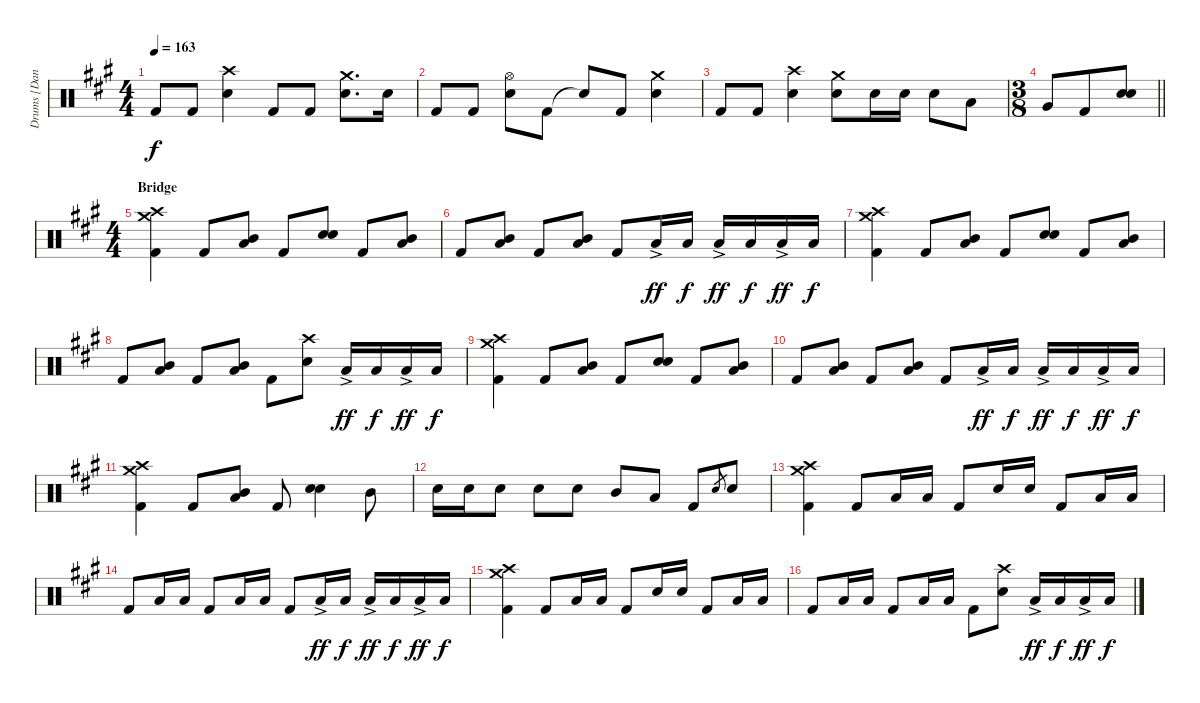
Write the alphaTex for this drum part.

\track ("Drums [Daniel Davison]" "Drums [Dan") {instrument percussion}
\staff {score}
\articulation defaults
\ts (4 4)
\tempo 163
\clef neutral
\ks a "Kick (hit) 2".8{dy f} "Kick (hit) 2".8
("Crash high (hit)" "Electric Snare (hit)").4 "Kick (hit) 2".8 "Kick (hit) 2".8 ("Crash medium (hit)" "Electric Snare (hit)").8{d} "Electric Snare (hit)".16 |
"Kick (hit) 2".8 "Kick (hit) 2".8 ("Hi-Hat (open)" "Electric Snare (hit)").8 "Kick (hit) 2".8 "Snare (hit)"{t}.8 "Kick (hit) 2".8 ("Crash medium (hit)" "Electric Snare (hit)").4 |
"Kick (hit) 2".8 "Kick (hit) 2".8 ("Crash high (hit)" "Electric Snare (hit)").4 ("Crash medium (hit)" "Electric Snare (hit)").8 "Electric Snare (hit)".16 "Electric Snare (hit)".16 "Electric Snare (hit)".8 "Low Tom (hit)".8 |
\ts (3 8)
\barLineRight lightlight "Very Low Tom (hit)".8 "Kick (hit) 2".8
("Electric Snare (hit)" "Electric Snare (hit)").8{bu 60} |
\ts (4 4)
\section ("" "Bridge")
("Crash medium (hit)" "Crash high (hit)" "Kick (hit) 2").4 "Kick (hit) 2".8 ("Mid Tom (hit)" "Low Tom (hit)").8{bu 60} "Kick (hit) 2".8 ("Electric Snare (hit)" "Electric Snare (hit)").8{bu 60} "Kick (hit) 2".8 ("Mid Tom (hit)" "Low Tom (hit)").8{bu 60} |
"Kick (hit) 2".8 ("Mid Tom (hit)" "Low Tom (hit)").8{bu 60} "Kick (hit) 2".8 ("Mid Tom (hit)" "Low Tom (hit)").8{bu 60} "Kick (hit) 2".8 "Low Tom (hit)"{ac}.16{dy ff} "Low Tom (hit)".16{dy f} "Low Tom (hit)"{ac}.16{dy ff} "Low Tom (hit)".16{dy f} "Low Tom (hit)"{ac}.16{dy ff} "Low Tom (hit)".16{dy f} |
("Crash medium (hit)" "Crash high (hit)" "Kick (hit) 2").4 "Kick (hit) 2".8 ("Mid Tom (hit)" "Low Tom (hit)").8{bu 60} "Kick (hit) 2".8 ("Electric Snare (hit)" "Electric Snare (hit)").8{bu 60} "Kick (hit) 2".8 ("Mid Tom (hit)" "Low Tom (hit)").8{bu 60} |
"Kick (hit) 2".8 ("Mid Tom (hit)" "Low Tom (hit)").8{bu 60} "Kick (hit) 2".8 ("Mid Tom (hit)" "Low Tom (hit)").8{bu 60} "Kick (hit) 2".8 ("Crash high (hit)" "Electric Snare (hit)").8 "Low Tom (hit)"{ac}.16{dy ff} "Low Tom (hit)".16{dy f} "Low Tom (hit)"{ac}.16{dy ff} "Low Tom (hit)".16{dy f} |
("Crash medium (hit)" "Crash high (hit)" "Kick (hit) 2").4 "Kick (hit) 2".8 ("Mid Tom (hit)" "Low Tom (hit)").8{bu 60} "Kick (hit) 2".8 ("Electric Snare (hit)" "Electric Snare (hit)").8{bu 60} "Kick (hit) 2".8 ("Mid Tom (hit)" "Low Tom (hit)").8{bu 60} |
"Kick (hit) 2".8 ("Mid Tom (hit)" "Low Tom (hit)").8{bu 60} "Kick (hit) 2".8 ("Mid Tom (hit)" "Low Tom (hit)").8{bu 60} "Kick (hit) 2".8 "Low Tom (hit)"{ac}.16{dy ff} "Low Tom (hit)".16{dy f} "Low Tom (hit)"{ac}.16{dy ff} "Low Tom (hit)".16{dy f} "Low Tom (hit)"{ac}.16{dy ff} "Low Tom (hit)".16{dy f} |
("Crash medium (hit)" "Crash high (hit)" "Kick (hit) 2").4 "Kick (hit) 2".8 ("Mid Tom (hit)" "Low Tom (hit)").8{bu 60} "Kick (hit) 2".8 ("Electric Snare (hit)" "Electric Snare (hit)").4{bu 60} "Mid Tom (hit)".8 |
"Electric Snare (hit)".16 "Electric Snare (hit)".16 "Electric Snare (hit)".8 "Electric Snare (hit)".8 "Electric Snare (hit)".8 "Mid Tom (hit)".8 "Low Tom (hit)".8 "Kick (hit) 2".8 "Electric Snare (hit)".8{gr} "Electric Snare (hit)".8 |
("Crash medium (hit)" "Crash high (hit)" "Kick (hit) 2").4 "Kick (hit) 2".8 "Low Tom (hit)".16 "Low Tom (hit)".16 "Kick (hit) 2".8 "Electric Snare (hit)".16 "Electric Snare (hit)".16 "Kick (hit) 2".8 "Low Tom (hit)".16 "Low Tom (hit)".16 |
"Kick (hit) 2".8 "Low Tom (hit)".16 "Low Tom (hit)".16 "Kick (hit) 2".8 "Low Tom (hit)".16 "Low Tom (hit)".16 "Kick (hit) 2".8 "Low Tom (hit)"{ac}.16{dy ff} "Low Tom (hit)".16{dy f} "Low Tom (hit)"{ac}.16{dy ff} "Low Tom (hit)".16{dy f} "Low Tom (hit)"{ac}.16{dy ff} "Low Tom (hit)".16{dy f} |
("Crash medium (hit)" "Crash high (hit)" "Kick (hit) 2").4 "Kick (hit) 2".8 "Low Tom (hit)".16 "Low Tom (hit)".16 "Kick (hit) 2".8 "Electric Snare (hit)".16 "Electric Snare (hit)".16 "Kick (hit) 2".8 "Low Tom (hit)".16 "Low Tom (hit)".16 |
"Kick (hit) 2".8 "Low Tom (hit)".16 "Low Tom (hit)".16 "Kick (hit) 2".8 "Low Tom (hit)".16 "Low Tom (hit)".16 "Kick (hit) 2".8 ("Crash high (hit)" "Electric Snare (hit)").8 "Low Tom (hit)"{ac}.16{dy ff} "Low Tom (hit)".16{dy f} "Low Tom (hit)"{ac}.16{dy ff} "Low Tom (hit)".16{dy f}
